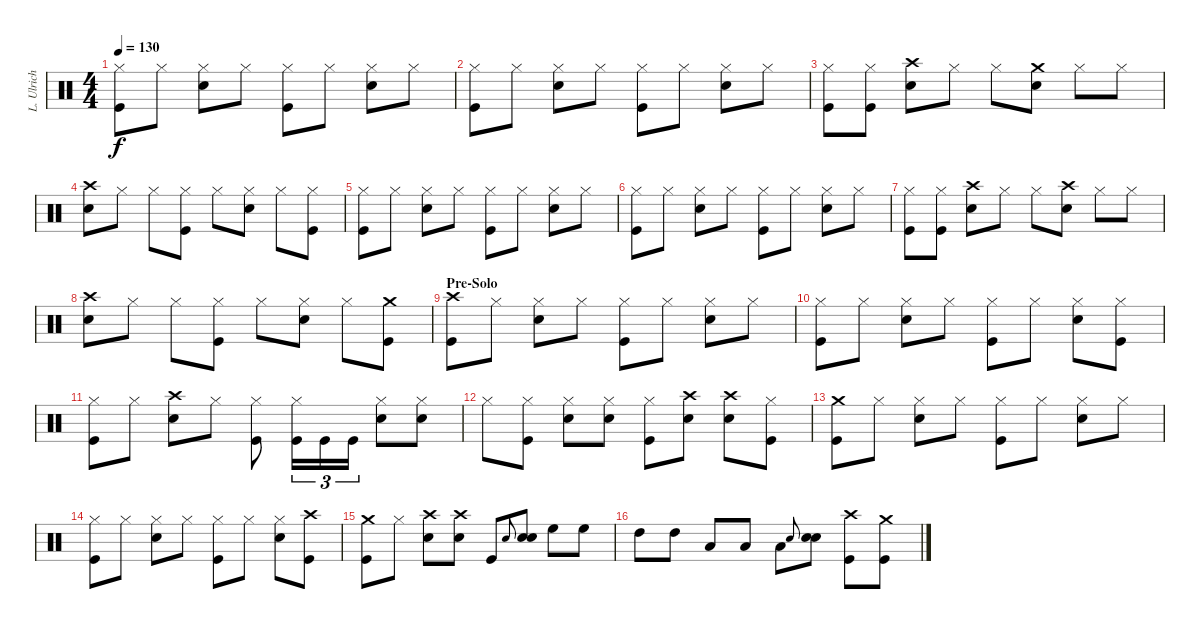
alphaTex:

\track ("L. Ulrich" "L. Ulrich") {instrument percussion}
\staff {score}
\articulation defaults
\ts (4 4)
\tempo 130
\clef neutral
\ks c
("Hi-Hat (closed)" "Kick (hit)").8{dy f} "Hi-Hat (closed)".8 ("Hi-Hat (closed)" "Snare (hit) 2").8 "Hi-Hat (closed)".8 ("Hi-Hat (closed)" "Kick (hit)").8 "Hi-Hat (closed)".8 ("Hi-Hat (closed)" "Snare (hit) 2").8 "Hi-Hat (closed)".8 |
("Hi-Hat (closed)" "Kick (hit)").8 "Hi-Hat (closed)".8 ("Hi-Hat (closed)" "Snare (hit) 2").8 "Hi-Hat (closed)".8 ("Hi-Hat (closed)" "Kick (hit)").8 "Hi-Hat (closed)".8 ("Hi-Hat (closed)" "Snare (hit) 2").8 "Hi-Hat (closed)".8 |
("Hi-Hat (closed)" "Kick (hit)").8 ("Hi-Hat (closed)" "Kick (hit)").8 ("Crash high (hit)" "Snare (hit) 2").8 "Hi-Hat (closed)".8 "Hi-Hat (closed)".8 ("Crash medium (hit)" "Snare (hit) 2").8 "Hi-Hat (closed)".8 "Hi-Hat (closed)".8 |
("Crash high (hit)" "Snare (hit) 2").8 "Hi-Hat (closed)".8 "Hi-Hat (closed)".8 ("Hi-Hat (closed)" "Kick (hit)").8 "Hi-Hat (closed)".8 ("Hi-Hat (closed)" "Snare (hit) 2").8 "Hi-Hat (closed)".8 ("Hi-Hat (closed)" "Kick (hit)").8 |
("Hi-Hat (closed)" "Kick (hit)").8 "Hi-Hat (closed)".8 ("Hi-Hat (closed)" "Snare (hit) 2").8 "Hi-Hat (closed)".8 ("Hi-Hat (closed)" "Kick (hit)").8 "Hi-Hat (closed)".8 ("Hi-Hat (closed)" "Snare (hit) 2").8 "Hi-Hat (closed)".8 |
("Hi-Hat (closed)" "Kick (hit)").8 "Hi-Hat (closed)".8 ("Hi-Hat (closed)" "Snare (hit) 2").8 "Hi-Hat (closed)".8 ("Hi-Hat (closed)" "Kick (hit)").8 "Hi-Hat (closed)".8 ("Hi-Hat (closed)" "Snare (hit) 2").8 "Hi-Hat (closed)".8 |
("Hi-Hat (closed)" "Kick (hit)").8 ("Hi-Hat (closed)" "Kick (hit)").8 ("Crash high (hit)" "Snare (hit) 2").8 "Hi-Hat (closed)".8 "Hi-Hat (closed)".8 ("Crash high (hit)" "Snare (hit) 2").8 "Hi-Hat (closed)".8 "Hi-Hat (closed)".8 |
("Crash high (hit)" "Snare (hit) 2").8 "Hi-Hat (closed)".8 "Hi-Hat (closed)".8 ("Hi-Hat (closed)" "Kick (hit)").8 "Hi-Hat (closed)".8 ("Hi-Hat (closed)" "Snare (hit) 2").8 "Hi-Hat (closed)".8 ("Crash medium (hit)" "Kick (hit)").8 |
\section ("" "Pre-Solo")
("Crash high (hit)" "Kick (hit)").8 "Hi-Hat (closed)".8 ("Hi-Hat (closed)" "Snare (hit) 2").8 "Hi-Hat (closed)".8 ("Hi-Hat (closed)" "Kick (hit)").8 "Hi-Hat (closed)".8 ("Hi-Hat (closed)" "Snare (hit) 2").8 "Hi-Hat (closed)".8 |
("Hi-Hat (closed)" "Kick (hit)").8 "Hi-Hat (closed)".8 ("Hi-Hat (closed)" "Snare (hit) 2").8 "Hi-Hat (closed)".8 ("Hi-Hat (closed)" "Kick (hit)").8 "Hi-Hat (closed)".8 ("Hi-Hat (closed)" "Snare (hit) 2").8 ("Hi-Hat (closed)" "Kick (hit)").8 |
("Hi-Hat (closed)" "Kick (hit)").8 "Hi-Hat (closed)".8 ("Crash high (hit)" "Snare (hit) 2").8 "Hi-Hat (closed)".8 ("Hi-Hat (closed)" "Kick (hit)").8 ("Hi-Hat (closed)" "Kick (hit)").16{tu (3 2)} "Kick (hit)".16{tu (3 2)} "Kick (hit)".16{tu (3 2)} ("Hi-Hat (closed)" "Snare (hit) 2").8 ("Hi-Hat (closed)" "Snare (hit) 2").8 |
"Hi-Hat (closed)".8 ("Hi-Hat (closed)" "Kick (hit)").8 ("Hi-Hat (closed)" "Snare (hit) 2").8 ("Hi-Hat (closed)" "Snare (hit) 2").8 ("Hi-Hat (closed)" "Kick (hit)").8 ("Crash high (hit)" "Snare (hit) 2").8 ("Crash high (hit)" "Snare (hit) 2").8 ("Hi-Hat (closed)" "Kick (hit)").8 |
("Crash medium (hit)" "Kick (hit)").8 "Hi-Hat (closed)".8 ("Hi-Hat (closed)" "Snare (hit) 2").8 "Hi-Hat (closed)".8 ("Hi-Hat (closed)" "Kick (hit)").8 "Hi-Hat (closed)".8 ("Hi-Hat (closed)" "Snare (hit) 2").8 "Hi-Hat (closed)".8 |
("Hi-Hat (closed)" "Kick (hit)").8 "Hi-Hat (closed)".8 ("Hi-Hat (closed)" "Snare (hit) 2").8 "Hi-Hat (closed)".8 ("Hi-Hat (closed)" "Kick (hit)").8 "Hi-Hat (closed)".8 ("Hi-Hat (closed)" "Snare (hit) 2").8 ("Crash high (hit)" "Kick (hit)").8 |
("Crash medium (hit)" "Kick (hit)").8 "Hi-Hat (closed)".8 ("Crash high (hit)" "Snare (hit) 2").8 ("Crash high (hit)" "Snare (hit) 2").8 "Kick (hit)".8 "Snare (hit) 2".8{gr onbeat} ("Snare (hit) 2" "Snare (hit) 2").8 "High Floor Tom (hit)".8 "High Floor Tom (hit)".8 |
"High Tom (hit)".8 "High Tom (hit)".8 "Low Tom (hit)".8 "Low Tom (hit)".8 "Low Floor Tom (hit)".8 "Snare (hit) 2".8{gr onbeat} ("Snare (hit) 2" "Snare (hit) 2").8 ("Crash high (hit)" "Kick (hit)").8 ("Crash medium (hit)" "Kick (hit)").8
